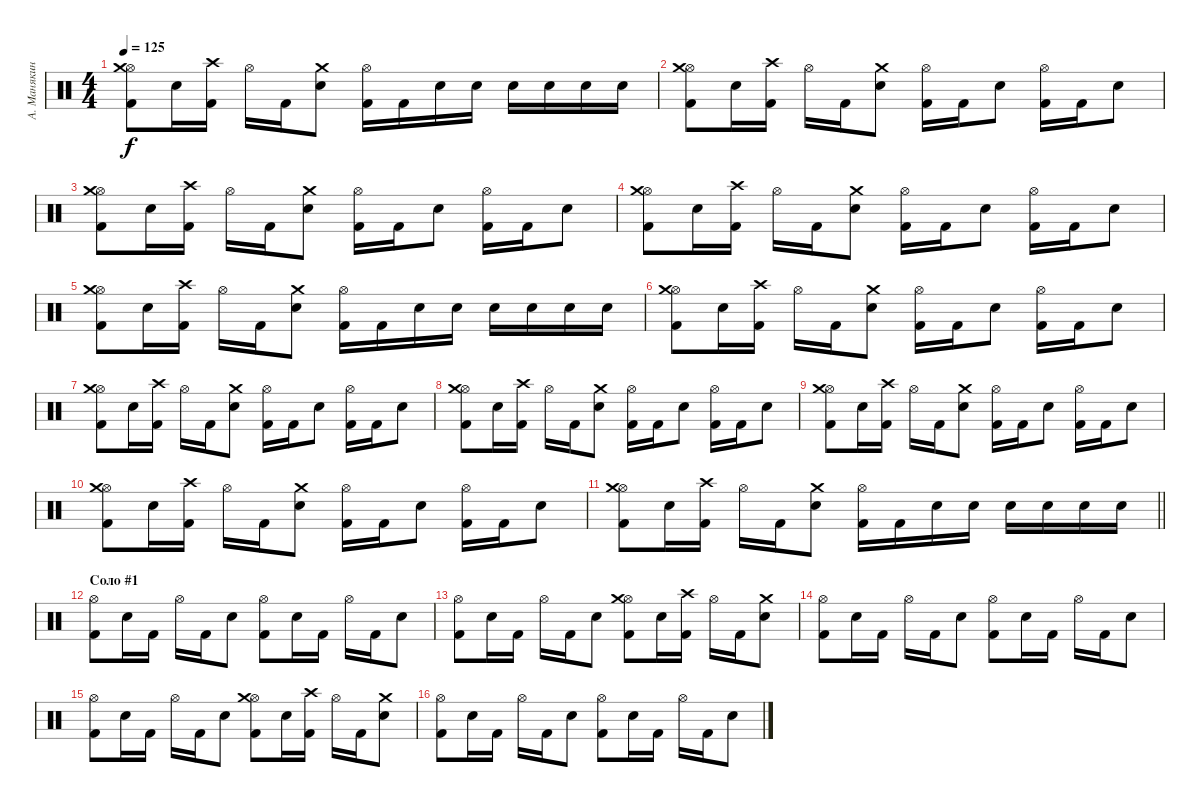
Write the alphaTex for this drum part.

\track ("А. Манякин" "А. Манякин") {instrument percussion}
\staff {score}
\articulation defaults
\ts (4 4)
\tempo 125
\clef neutral
\ks c
("Kick (hit) 2" "Hi-Hat (open)" "Crash medium (hit)").8{dy f} "Electric Snare (hit)".16 ("Kick (hit) 2" "Crash high (hit)").16 "Hi-Hat (open)".16 "Kick (hit) 2".16 ("Electric Snare (hit)" "Crash medium (hit)").8 ("Kick (hit) 2" "Hi-Hat (open)").16 "Kick (hit) 2".16 "Electric Snare (hit)".16 "Electric Snare (hit)".16 "Electric Snare (hit)".16 "Electric Snare (hit)".16 "Electric Snare (hit)".16 "Electric Snare (hit)".16 |
("Kick (hit) 2" "Hi-Hat (open)" "Crash medium (hit)").8 "Electric Snare (hit)".16 ("Kick (hit) 2" "Crash high (hit)").16 "Hi-Hat (open)".16 "Kick (hit) 2".16 ("Electric Snare (hit)" "Crash medium (hit)").8 ("Kick (hit) 2" "Hi-Hat (open)").16 "Kick (hit) 2".16 "Electric Snare (hit)".8 ("Kick (hit) 2" "Hi-Hat (open)").16 "Kick (hit) 2".16 "Electric Snare (hit)".8 |
("Kick (hit) 2" "Hi-Hat (open)" "Crash medium (hit)").8 "Electric Snare (hit)".16 ("Kick (hit) 2" "Crash high (hit)").16 "Hi-Hat (open)".16 "Kick (hit) 2".16 ("Electric Snare (hit)" "Crash medium (hit)").8 ("Kick (hit) 2" "Hi-Hat (open)").16 "Kick (hit) 2".16 "Electric Snare (hit)".8 ("Kick (hit) 2" "Hi-Hat (open)").16 "Kick (hit) 2".16 "Electric Snare (hit)".8 |
("Kick (hit) 2" "Hi-Hat (open)" "Crash medium (hit)").8 "Electric Snare (hit)".16 ("Kick (hit) 2" "Crash high (hit)").16 "Hi-Hat (open)".16 "Kick (hit) 2".16 ("Electric Snare (hit)" "Crash medium (hit)").8 ("Kick (hit) 2" "Hi-Hat (open)").16 "Kick (hit) 2".16 "Electric Snare (hit)".8 ("Kick (hit) 2" "Hi-Hat (open)").16 "Kick (hit) 2".16 "Electric Snare (hit)".8 |
("Kick (hit) 2" "Hi-Hat (open)" "Crash medium (hit)").8 "Electric Snare (hit)".16 ("Kick (hit) 2" "Crash high (hit)").16 "Hi-Hat (open)".16 "Kick (hit) 2".16 ("Electric Snare (hit)" "Crash medium (hit)").8 ("Kick (hit) 2" "Hi-Hat (open)").16 "Kick (hit) 2".16 "Electric Snare (hit)".16 "Electric Snare (hit)".16 "Electric Snare (hit)".16 "Electric Snare (hit)".16 "Electric Snare (hit)".16 "Electric Snare (hit)".16 |
("Kick (hit) 2" "Hi-Hat (open)" "Crash medium (hit)").8 "Electric Snare (hit)".16 ("Kick (hit) 2" "Crash high (hit)").16 "Hi-Hat (open)".16 "Kick (hit) 2".16 ("Electric Snare (hit)" "Crash medium (hit)").8 ("Kick (hit) 2" "Hi-Hat (open)").16 "Kick (hit) 2".16 "Electric Snare (hit)".8 ("Kick (hit) 2" "Hi-Hat (open)").16 "Kick (hit) 2".16 "Electric Snare (hit)".8 |
("Kick (hit) 2" "Hi-Hat (open)" "Crash medium (hit)").8 "Electric Snare (hit)".16 ("Kick (hit) 2" "Crash high (hit)").16 "Hi-Hat (open)".16 "Kick (hit) 2".16 ("Electric Snare (hit)" "Crash medium (hit)").8 ("Kick (hit) 2" "Hi-Hat (open)").16 "Kick (hit) 2".16 "Electric Snare (hit)".8 ("Kick (hit) 2" "Hi-Hat (open)").16 "Kick (hit) 2".16 "Electric Snare (hit)".8 |
("Kick (hit) 2" "Hi-Hat (open)" "Crash medium (hit)").8 "Electric Snare (hit)".16 ("Kick (hit) 2" "Crash high (hit)").16 "Hi-Hat (open)".16 "Kick (hit) 2".16 ("Electric Snare (hit)" "Crash medium (hit)").8 ("Kick (hit) 2" "Hi-Hat (open)").16 "Kick (hit) 2".16 "Electric Snare (hit)".8 ("Kick (hit) 2" "Hi-Hat (open)").16 "Kick (hit) 2".16 "Electric Snare (hit)".8 |
("Kick (hit) 2" "Hi-Hat (open)" "Crash medium (hit)").8 "Electric Snare (hit)".16 ("Kick (hit) 2" "Crash high (hit)").16 "Hi-Hat (open)".16 "Kick (hit) 2".16 ("Electric Snare (hit)" "Crash medium (hit)").8 ("Kick (hit) 2" "Hi-Hat (open)").16 "Kick (hit) 2".16 "Electric Snare (hit)".8 ("Kick (hit) 2" "Hi-Hat (open)").16 "Kick (hit) 2".16 "Electric Snare (hit)".8 |
("Kick (hit) 2" "Hi-Hat (open)" "Crash medium (hit)").8 "Electric Snare (hit)".16 ("Kick (hit) 2" "Crash high (hit)").16 "Hi-Hat (open)".16 "Kick (hit) 2".16 ("Electric Snare (hit)" "Crash medium (hit)").8 ("Kick (hit) 2" "Hi-Hat (open)").16 "Kick (hit) 2".16 "Electric Snare (hit)".8 ("Kick (hit) 2" "Hi-Hat (open)").16 "Kick (hit) 2".16 "Electric Snare (hit)".8 |
\barLineRight lightlight
("Kick (hit) 2" "Hi-Hat (open)" "Crash medium (hit)").8 "Electric Snare (hit)".16 ("Kick (hit) 2" "Crash high (hit)").16 "Hi-Hat (open)".16 "Kick (hit) 2".16 ("Electric Snare (hit)" "Crash medium (hit)").8 ("Kick (hit) 2" "Hi-Hat (open)").16 "Kick (hit) 2".16 "Electric Snare (hit)".16 "Electric Snare (hit)".16 "Electric Snare (hit)".16 "Electric Snare (hit)".16 "Electric Snare (hit)".16 "Electric Snare (hit)".16 |
\section ("" "Соло #1")
("Kick (hit) 2" "Hi-Hat (open)").8 "Electric Snare (hit)".16 "Kick (hit) 2".16 "Hi-Hat (open)".16 "Kick (hit) 2".16 "Electric Snare (hit)".8 ("Kick (hit) 2" "Hi-Hat (open)").8 "Electric Snare (hit)".16 "Kick (hit) 2".16 "Hi-Hat (open)".16 "Kick (hit) 2".16 "Electric Snare (hit)".8 |
("Kick (hit) 2" "Hi-Hat (open)").8 "Electric Snare (hit)".16 "Kick (hit) 2".16 "Hi-Hat (open)".16 "Kick (hit) 2".16 "Electric Snare (hit)".8 ("Kick (hit) 2" "Hi-Hat (open)" "Crash medium (hit)").8 "Electric Snare (hit)".16 ("Kick (hit) 2" "Crash high (hit)").16 "Hi-Hat (open)".16 "Kick (hit) 2".16 ("Electric Snare (hit)" "Crash medium (hit)").8 |
("Kick (hit) 2" "Hi-Hat (open)").8 "Electric Snare (hit)".16 "Kick (hit) 2".16 "Hi-Hat (open)".16 "Kick (hit) 2".16 "Electric Snare (hit)".8 ("Kick (hit) 2" "Hi-Hat (open)").8 "Electric Snare (hit)".16 "Kick (hit) 2".16 "Hi-Hat (open)".16 "Kick (hit) 2".16 "Electric Snare (hit)".8 |
("Kick (hit) 2" "Hi-Hat (open)").8 "Electric Snare (hit)".16 "Kick (hit) 2".16 "Hi-Hat (open)".16 "Kick (hit) 2".16 "Electric Snare (hit)".8 ("Kick (hit) 2" "Hi-Hat (open)" "Crash medium (hit)").8 "Electric Snare (hit)".16 ("Kick (hit) 2" "Crash high (hit)").16 "Hi-Hat (open)".16 "Kick (hit) 2".16 ("Electric Snare (hit)" "Crash medium (hit)").8 |
("Kick (hit) 2" "Hi-Hat (open)").8 "Electric Snare (hit)".16 "Kick (hit) 2".16 "Hi-Hat (open)".16 "Kick (hit) 2".16 "Electric Snare (hit)".8 ("Kick (hit) 2" "Hi-Hat (open)").8 "Electric Snare (hit)".16 "Kick (hit) 2".16 "Hi-Hat (open)".16 "Kick (hit) 2".16 "Electric Snare (hit)".8
